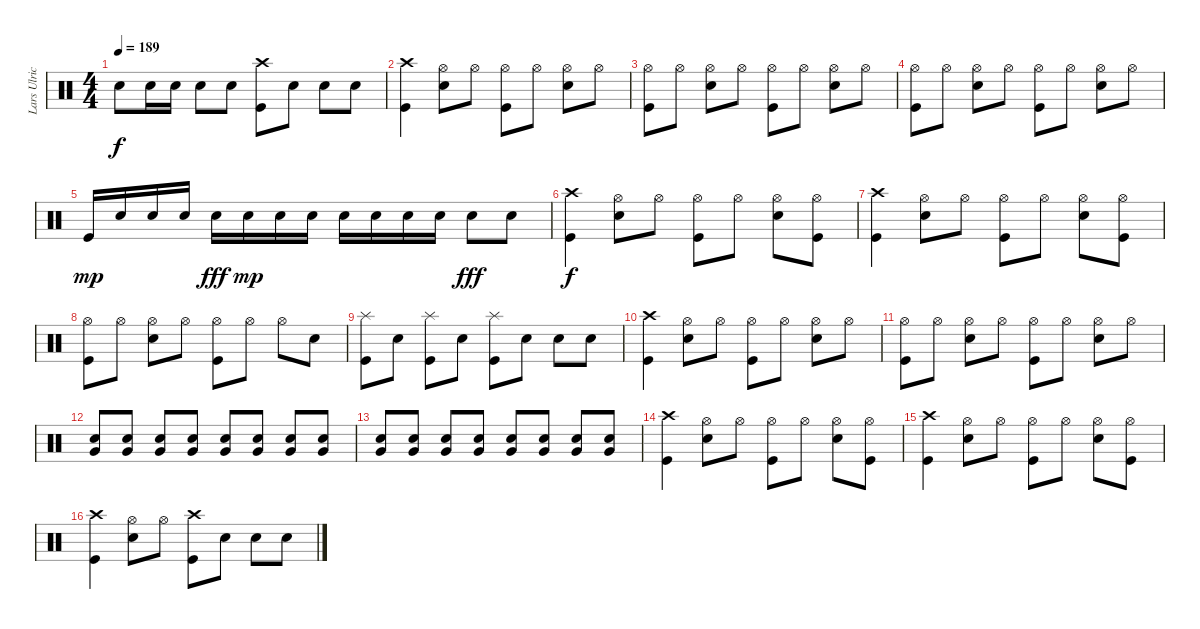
\track ("Lars Ulrich" "Lars Ulric") {instrument percussion}
\staff {score}
\articulation defaults
\ts (4 4)
\tempo 189
\clef neutral
\ks c "Electric Snare (hit)".8{dy f} "Electric Snare (hit)".16 "Electric Snare (hit)".16 "Electric Snare (hit)".8 "Electric Snare (hit)".8
("Crash high (hit)" "Kick (hit)").8 "Electric Snare (hit)".8 "Electric Snare (hit)".8 "Electric Snare (hit)".8 |
("Crash high (hit)" "Kick (hit)").4 ("Hi-Hat (open)" "Electric Snare (hit)").8 "Hi-Hat (open)".8 ("Hi-Hat (open)" "Kick (hit)").8 "Hi-Hat (open)".8 ("Hi-Hat (open)" "Electric Snare (hit)").8 "Hi-Hat (open)".8 |
("Hi-Hat (open)" "Kick (hit)").8 "Hi-Hat (open)".8 ("Hi-Hat (open)" "Electric Snare (hit)").8 "Hi-Hat (open)".8 ("Hi-Hat (open)" "Kick (hit)").8 "Hi-Hat (open)".8 ("Hi-Hat (open)" "Electric Snare (hit)").8 "Hi-Hat (open)".8 |
("Hi-Hat (open)" "Kick (hit)").8 "Hi-Hat (open)".8 ("Hi-Hat (open)" "Electric Snare (hit)").8 "Hi-Hat (open)".8 ("Hi-Hat (open)" "Kick (hit)").8 "Hi-Hat (open)".8 ("Hi-Hat (open)" "Electric Snare (hit)").8 "Hi-Hat (open)".8 |
"Kick (hit)".16{dy mp} "Electric Snare (hit)".16 "Electric Snare (hit)".16 "Electric Snare (hit)".16 "Electric Snare (hit)".16{dy fff} "Electric Snare (hit)".16{dy mp} "Electric Snare (hit)".16 "Electric Snare (hit)".16 "Electric Snare (hit)".16 "Electric Snare (hit)".16 "Electric Snare (hit)".16 "Electric Snare (hit)".16 "Electric Snare (hit)".8{dy fff} "Electric Snare (hit)".8 |
("Crash high (hit)" "Kick (hit)").4{dy f} ("Hi-Hat (open)" "Electric Snare (hit)").8 "Hi-Hat (open)".8 ("Hi-Hat (open)" "Kick (hit)").8 "Hi-Hat (open)".8 ("Hi-Hat (open)" "Electric Snare (hit)").8 ("Hi-Hat (open)" "Kick (hit)").8 |
("Crash high (hit)" "Kick (hit)").4 ("Hi-Hat (open)" "Electric Snare (hit)").8 "Hi-Hat (open)".8 ("Hi-Hat (open)" "Kick (hit)").8 "Hi-Hat (open)".8 ("Hi-Hat (open)" "Electric Snare (hit)").8 ("Hi-Hat (open)" "Kick (hit)").8 |
("Hi-Hat (open)" "Kick (hit)").8 "Hi-Hat (open)".8 ("Hi-Hat (open)" "Electric Snare (hit)").8 "Hi-Hat (open)".8 ("Hi-Hat (open)" "Kick (hit)").8 "Hi-Hat (open)".8 "Hi-Hat (open)".8 "Electric Snare (hit)".8 |
("Splash (hit)" "Kick (hit)").8 "Electric Snare (hit)".8 ("Splash (hit)" "Kick (hit)").8 "Electric Snare (hit)".8 ("Splash (hit)" "Kick (hit)").8 "Electric Snare (hit)".8 "Electric Snare (hit)".8 "Electric Snare (hit)".8 |
("Crash high (hit)" "Kick (hit)").4 ("Hi-Hat (open)" "Electric Snare (hit)").8 "Hi-Hat (open)".8 ("Hi-Hat (open)" "Kick (hit)").8 "Hi-Hat (open)".8 ("Hi-Hat (open)" "Electric Snare (hit)").8 "Hi-Hat (open)".8 |
("Hi-Hat (open)" "Kick (hit)").8 "Hi-Hat (open)".8 ("Hi-Hat (open)" "Electric Snare (hit)").8 "Hi-Hat (open)".8 ("Hi-Hat (open)" "Kick (hit)").8 "Hi-Hat (open)".8 ("Hi-Hat (open)" "Electric Snare (hit)").8 "Hi-Hat (open)".8 |
("Electric Snare (hit)" "Very Low Tom (hit)").8 ("Electric Snare (hit)" "Very Low Tom (hit)").8 ("Electric Snare (hit)" "Very Low Tom (hit)").8 ("Electric Snare (hit)" "Very Low Tom (hit)").8 ("Electric Snare (hit)" "Very Low Tom (hit)").8 ("Electric Snare (hit)" "Very Low Tom (hit)").8 ("Electric Snare (hit)" "Very Low Tom (hit)").8 ("Electric Snare (hit)" "Very Low Tom (hit)").8 |
("Electric Snare (hit)" "Very Low Tom (hit)").8 ("Electric Snare (hit)" "Very Low Tom (hit)").8 ("Electric Snare (hit)" "Very Low Tom (hit)").8 ("Electric Snare (hit)" "Very Low Tom (hit)").8 ("Electric Snare (hit)" "Very Low Tom (hit)").8 ("Electric Snare (hit)" "Very Low Tom (hit)").8 ("Electric Snare (hit)" "Very Low Tom (hit)").8 ("Electric Snare (hit)" "Very Low Tom (hit)").8 |
("Crash high (hit)" "Kick (hit)").4 ("Hi-Hat (open)" "Electric Snare (hit)").8 "Hi-Hat (open)".8 ("Hi-Hat (open)" "Kick (hit)").8 "Hi-Hat (open)".8 ("Hi-Hat (open)" "Electric Snare (hit)").8 ("Hi-Hat (open)" "Kick (hit)").8 |
("Crash high (hit)" "Kick (hit)").4 ("Hi-Hat (open)" "Electric Snare (hit)").8 "Hi-Hat (open)".8 ("Hi-Hat (open)" "Kick (hit)").8 "Hi-Hat (open)".8 ("Hi-Hat (open)" "Electric Snare (hit)").8 ("Hi-Hat (open)" "Kick (hit)").8 |
("Crash high (hit)" "Kick (hit)").4 ("Hi-Hat (open)" "Electric Snare (hit)").8 "Hi-Hat (open)".8 ("Crash high (hit)" "Kick (hit)").8 "Electric Snare (hit)".8 "Electric Snare (hit)".8 "Electric Snare (hit)".8
